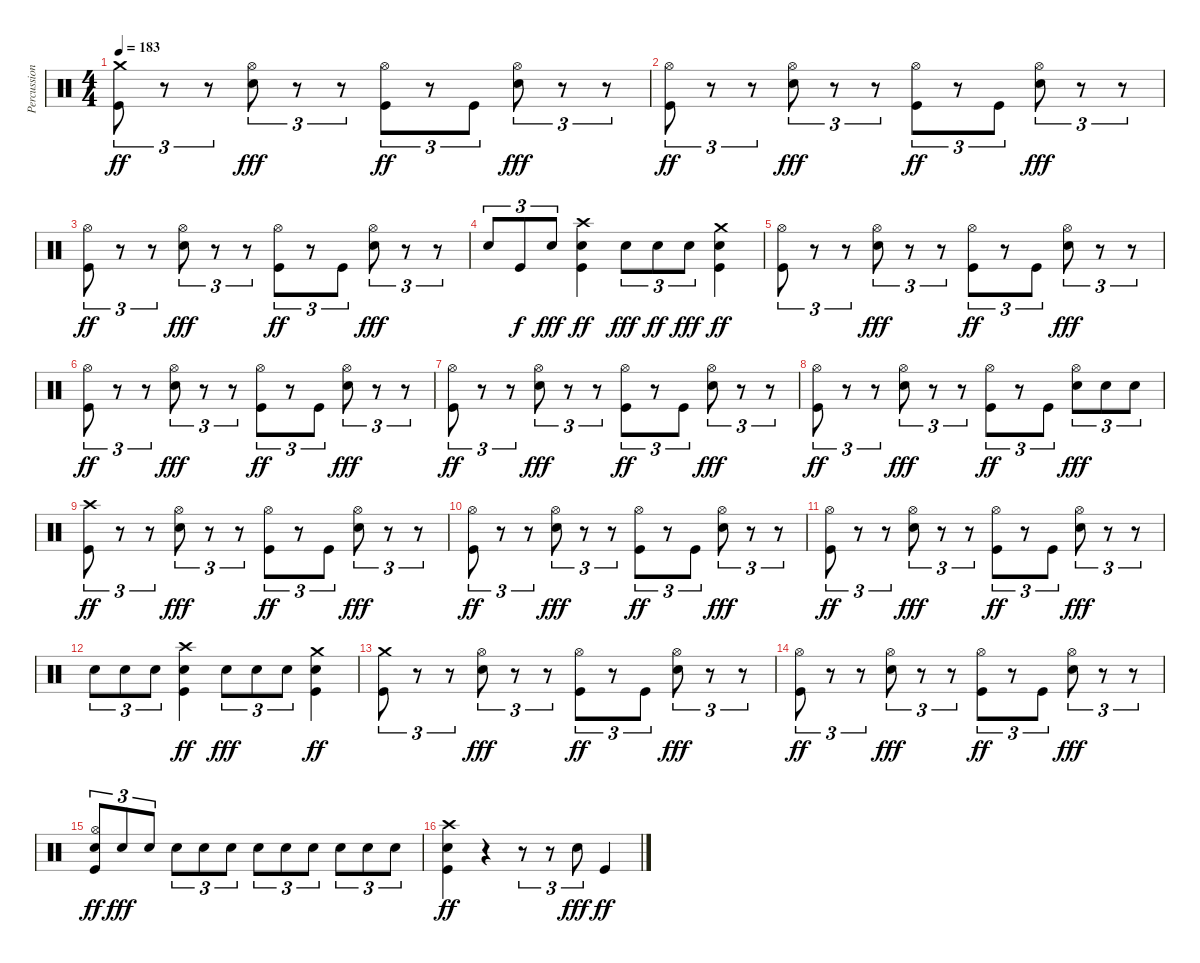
\track ("Percussion" "Percussion") {instrument percussion}
\staff {score}
\articulation defaults
\ts (4 4)
\tempo 183
\clef neutral
\ks c
("Crash medium (hit)" "Kick (hit)").8{tu (3 2) dy ff} r.8{tu (3 2)} r.8{tu (3 2)} ("Hi-Hat (open)" "Snare (hit) 2").8{tu (3 2) dy fff} r.8{tu (3 2)} r.8{tu (3 2)} ("Hi-Hat (open)" "Kick (hit)").8{tu (3 2) dy ff} r.8{tu (3 2)} "Kick (hit)".8{tu (3 2)} ("Hi-Hat (open)" "Snare (hit) 2").8{tu (3 2) dy fff} r.8{tu (3 2)} r.8{tu (3 2)} |
("Hi-Hat (open)" "Kick (hit)").8{tu (3 2) dy ff} r.8{tu (3 2)} r.8{tu (3 2)} ("Hi-Hat (open)" "Snare (hit) 2").8{tu (3 2) dy fff} r.8{tu (3 2)} r.8{tu (3 2)} ("Hi-Hat (open)" "Kick (hit)").8{tu (3 2) dy ff} r.8{tu (3 2)} "Kick (hit)".8{tu (3 2)} ("Hi-Hat (open)" "Snare (hit) 2").8{tu (3 2) dy fff} r.8{tu (3 2)} r.8{tu (3 2)} |
("Hi-Hat (open)" "Kick (hit)").8{tu (3 2) dy ff} r.8{tu (3 2)} r.8{tu (3 2)} ("Hi-Hat (open)" "Snare (hit) 2").8{tu (3 2) dy fff} r.8{tu (3 2)} r.8{tu (3 2)} ("Hi-Hat (open)" "Kick (hit)").8{tu (3 2) dy ff} r.8{tu (3 2)} "Kick (hit)".8{tu (3 2)} ("Hi-Hat (open)" "Snare (hit) 2").8{tu (3 2) dy fff} r.8{tu (3 2)} r.8{tu (3 2)} |
"Snare (hit) 2".8{tu (3 2)} "Kick (hit)".8{tu (3 2) dy f} "Snare (hit) 2".8{tu (3 2) dy fff} ("Crash high (hit)" "Snare (hit) 2" "Kick (hit)").4{dy ff} "Snare (hit) 2".8{tu (3 2) dy fff} "Snare (hit) 2".8{tu (3 2) dy ff} "Snare (hit) 2".8{tu (3 2) dy fff} ("Crash medium (hit)" "Snare (hit) 2" "Kick (hit)").4{dy ff} |
("Hi-Hat (open)" "Kick (hit)").8{tu (3 2)} r.8{tu (3 2)} r.8{tu (3 2)} ("Hi-Hat (open)" "Snare (hit) 2").8{tu (3 2) dy fff} r.8{tu (3 2)} r.8{tu (3 2)} ("Hi-Hat (open)" "Kick (hit)").8{tu (3 2) dy ff} r.8{tu (3 2)} "Kick (hit)".8{tu (3 2)} ("Hi-Hat (open)" "Snare (hit) 2").8{tu (3 2) dy fff} r.8{tu (3 2)} r.8{tu (3 2)} |
("Hi-Hat (open)" "Kick (hit)").8{tu (3 2) dy ff} r.8{tu (3 2)} r.8{tu (3 2)} ("Hi-Hat (open)" "Snare (hit) 2").8{tu (3 2) dy fff} r.8{tu (3 2)} r.8{tu (3 2)} ("Hi-Hat (open)" "Kick (hit)").8{tu (3 2) dy ff} r.8{tu (3 2)} "Kick (hit)".8{tu (3 2)} ("Hi-Hat (open)" "Snare (hit) 2").8{tu (3 2) dy fff} r.8{tu (3 2)} r.8{tu (3 2)} |
("Hi-Hat (open)" "Kick (hit)").8{tu (3 2) dy ff} r.8{tu (3 2)} r.8{tu (3 2)} ("Hi-Hat (open)" "Snare (hit) 2").8{tu (3 2) dy fff} r.8{tu (3 2)} r.8{tu (3 2)} ("Hi-Hat (open)" "Kick (hit)").8{tu (3 2) dy ff} r.8{tu (3 2)} "Kick (hit)".8{tu (3 2)} ("Hi-Hat (open)" "Snare (hit) 2").8{tu (3 2) dy fff} r.8{tu (3 2)} r.8{tu (3 2)} |
("Hi-Hat (open)" "Kick (hit)").8{tu (3 2) dy ff} r.8{tu (3 2)} r.8{tu (3 2)} ("Hi-Hat (open)" "Snare (hit) 2").8{tu (3 2) dy fff} r.8{tu (3 2)} r.8{tu (3 2)} ("Hi-Hat (open)" "Kick (hit)").8{tu (3 2) dy ff} r.8{tu (3 2)} "Kick (hit)".8{tu (3 2)} ("Hi-Hat (open)" "Snare (hit) 2").8{tu (3 2) dy fff} "Snare (hit) 2".8{tu (3 2)} "Snare (hit) 2".8{tu (3 2)} |
("Crash high (hit)" "Kick (hit)").8{tu (3 2) dy ff} r.8{tu (3 2)} r.8{tu (3 2)} ("Hi-Hat (open)" "Snare (hit) 2").8{tu (3 2) dy fff} r.8{tu (3 2)} r.8{tu (3 2)} ("Hi-Hat (open)" "Kick (hit)").8{tu (3 2) dy ff} r.8{tu (3 2)} "Kick (hit)".8{tu (3 2)} ("Hi-Hat (open)" "Snare (hit) 2").8{tu (3 2) dy fff} r.8{tu (3 2)} r.8{tu (3 2)} |
("Hi-Hat (open)" "Kick (hit)").8{tu (3 2) dy ff} r.8{tu (3 2)} r.8{tu (3 2)} ("Hi-Hat (open)" "Snare (hit) 2").8{tu (3 2) dy fff} r.8{tu (3 2)} r.8{tu (3 2)} ("Hi-Hat (open)" "Kick (hit)").8{tu (3 2) dy ff} r.8{tu (3 2)} "Kick (hit)".8{tu (3 2)} ("Hi-Hat (open)" "Snare (hit) 2").8{tu (3 2) dy fff} r.8{tu (3 2)} r.8{tu (3 2)} |
("Hi-Hat (open)" "Kick (hit)").8{tu (3 2) dy ff} r.8{tu (3 2)} r.8{tu (3 2)} ("Hi-Hat (open)" "Snare (hit) 2").8{tu (3 2) dy fff} r.8{tu (3 2)} r.8{tu (3 2)} ("Hi-Hat (open)" "Kick (hit)").8{tu (3 2) dy ff} r.8{tu (3 2)} "Kick (hit)".8{tu (3 2)} ("Hi-Hat (open)" "Snare (hit) 2").8{tu (3 2) dy fff} r.8{tu (3 2)} r.8{tu (3 2)} |
"Snare (hit) 2".8{tu (3 2)} "Snare (hit) 2".8{tu (3 2)} "Snare (hit) 2".8{tu (3 2)} ("Crash high (hit)" "Snare (hit) 2" "Kick (hit)").4{dy ff} "Snare (hit) 2".8{tu (3 2) dy fff} "Snare (hit) 2".8{tu (3 2)} "Snare (hit) 2".8{tu (3 2)} ("Crash medium (hit)" "Snare (hit) 2" "Kick (hit)").4{dy ff} |
("Crash medium (hit)" "Kick (hit)").8{tu (3 2)} r.8{tu (3 2)} r.8{tu (3 2)} ("Hi-Hat (open)" "Snare (hit) 2").8{tu (3 2) dy fff} r.8{tu (3 2)} r.8{tu (3 2)} ("Hi-Hat (open)" "Kick (hit)").8{tu (3 2) dy ff} r.8{tu (3 2)} "Kick (hit)".8{tu (3 2)} ("Hi-Hat (open)" "Snare (hit) 2").8{tu (3 2) dy fff} r.8{tu (3 2)} r.8{tu (3 2)} |
("Hi-Hat (open)" "Kick (hit)").8{tu (3 2) dy ff} r.8{tu (3 2)} r.8{tu (3 2)} ("Hi-Hat (open)" "Snare (hit) 2").8{tu (3 2) dy fff} r.8{tu (3 2)} r.8{tu (3 2)} ("Hi-Hat (open)" "Kick (hit)").8{tu (3 2) dy ff} r.8{tu (3 2)} "Kick (hit)".8{tu (3 2)} ("Hi-Hat (open)" "Snare (hit) 2").8{tu (3 2) dy fff} r.8{tu (3 2)} r.8{tu (3 2)} |
("Hi-Hat (open)" "Snare (hit) 2" "Kick (hit)").8{tu (3 2) dy ff} "Snare (hit) 2".8{tu (3 2) dy fff} "Snare (hit) 2".8{tu (3 2)} "Snare (hit) 2".8{tu (3 2)} "Snare (hit) 2".8{tu (3 2)} "Snare (hit) 2".8{tu (3 2)} "Snare (hit) 2".8{tu (3 2)} "Snare (hit) 2".8{tu (3 2)} "Snare (hit) 2".8{tu (3 2)} "Snare (hit) 2".8{tu (3 2)} "Snare (hit) 2".8{tu (3 2)} "Snare (hit) 2".8{tu (3 2)} |
("Crash high (hit)" "Snare (hit) 2" "Kick (hit)").4{dy ff} r.4 r.8{tu (3 2)} r.8{tu (3 2)} "Snare (hit) 2".8{tu (3 2) dy fff} "Kick (hit)".4{dy ff}
